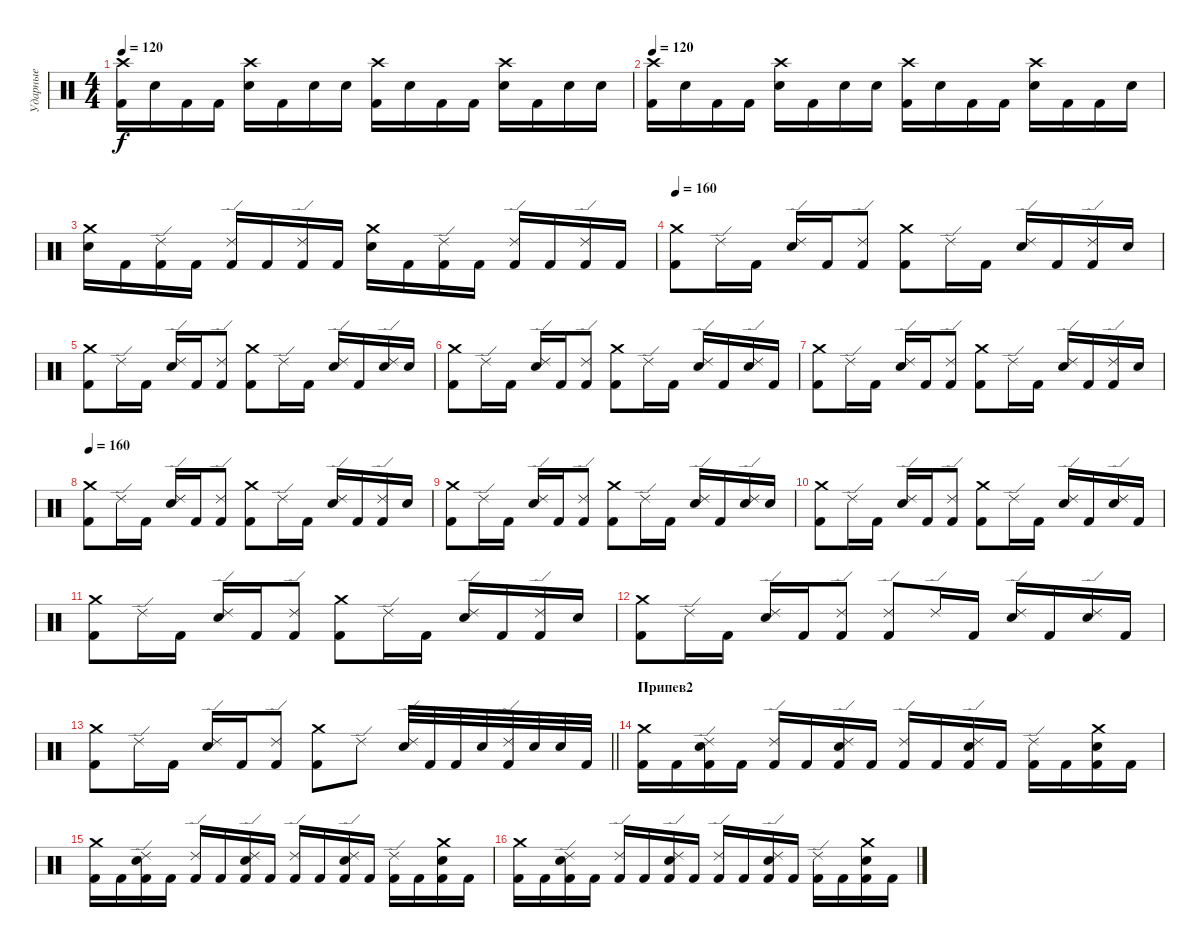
\track ("Ударные" "Ударные") {instrument percussion}
\staff {score}
\articulation defaults
\ts (4 4)
\tempo 120
\clef neutral
\ks c
("Crash high (hit)" "Kick (hit) 2").16{dy f} "Electric Snare (hit)".16 "Kick (hit) 2".16 "Kick (hit) 2".16 ("Crash high (hit)" "Electric Snare (hit)").16 "Kick (hit) 2".16 "Electric Snare (hit)".16 "Electric Snare (hit)".16 ("Crash high (hit)" "Kick (hit) 2").16 "Electric Snare (hit)".16 "Kick (hit) 2".16 "Kick (hit) 2".16 ("Crash high (hit)" "Electric Snare (hit)").16 "Kick (hit) 2".16 "Electric Snare (hit)".16 "Electric Snare (hit)".16 |
\tempo 120
("Crash high (hit)" "Kick (hit) 2").16 "Electric Snare (hit)".16 "Kick (hit) 2".16 "Kick (hit) 2".16 ("Crash high (hit)" "Electric Snare (hit)").16 "Kick (hit) 2".16 "Electric Snare (hit)".16 "Electric Snare (hit)".16 ("Crash high (hit)" "Kick (hit) 2").16 "Electric Snare (hit)".16 "Kick (hit) 2".16 "Kick (hit) 2".16 ("Crash high (hit)" "Electric Snare (hit)").16 "Kick (hit) 2".16 "Kick (hit) 2".16 "Electric Snare (hit)".16 |
("Crash medium (hit)" "Electric Snare (hit)").16 "Kick (hit) 2".16 ("Ride (edge) 2" "Kick (hit) 2").16 "Kick (hit) 2".16 ("Ride (edge) 2" "Kick (hit) 2").16 "Kick (hit) 2".16 ("Ride (edge) 2" "Kick (hit) 2").16 "Kick (hit) 2".16 ("Crash medium (hit)" "Electric Snare (hit)").16 "Kick (hit) 2".16 ("Ride (edge) 2" "Kick (hit) 2").16 "Kick (hit) 2".16 ("Ride (edge) 2" "Kick (hit) 2").16 "Kick (hit) 2".16 ("Ride (edge) 2" "Kick (hit) 2").16 "Kick (hit) 2".16 |
\tempo 160
("Crash medium (hit)" "Kick (hit) 2").8 "Ride (edge) 2".16 "Kick (hit) 2".16 ("Ride (edge) 2" "Electric Snare (hit)").16 "Kick (hit) 2".16 ("Ride (edge) 2" "Kick (hit) 2").8 ("Crash medium (hit)" "Kick (hit) 2").8 "Ride (edge) 2".16 "Kick (hit) 2".16 ("Ride (edge) 2" "Electric Snare (hit)").16 "Kick (hit) 2".16 ("Ride (edge) 2" "Kick (hit) 2").16 "Electric Snare (hit)".16 |
("Crash medium (hit)" "Kick (hit) 2").8 "Ride (edge) 2".16 "Kick (hit) 2".16 ("Ride (edge) 2" "Electric Snare (hit)").16 "Kick (hit) 2".16 ("Ride (edge) 2" "Kick (hit) 2").8 ("Crash medium (hit)" "Kick (hit) 2").8 "Ride (edge) 2".16 "Kick (hit) 2".16 ("Ride (edge) 2" "Electric Snare (hit)").16 "Kick (hit) 2".16 ("Ride (edge) 2" "Electric Snare (hit)").16 "Electric Snare (hit)".16 |
("Crash medium (hit)" "Kick (hit) 2").8 "Ride (edge) 2".16 "Kick (hit) 2".16 ("Ride (edge) 2" "Electric Snare (hit)").16 "Kick (hit) 2".16 ("Ride (edge) 2" "Kick (hit) 2").8 ("Crash medium (hit)" "Kick (hit) 2").8 "Ride (edge) 2".16 "Kick (hit) 2".16 ("Ride (edge) 2" "Electric Snare (hit)").16 "Kick (hit) 2".16 ("Ride (edge) 2" "Electric Snare (hit)").16 "Kick (hit) 2".16 |
("Crash medium (hit)" "Kick (hit) 2").8 "Ride (edge) 2".16 "Kick (hit) 2".16 ("Ride (edge) 2" "Electric Snare (hit)").16 "Kick (hit) 2".16 ("Ride (edge) 2" "Kick (hit) 2").8 ("Crash medium (hit)" "Kick (hit) 2").8 "Ride (edge) 2".16 "Kick (hit) 2".16 ("Ride (edge) 2" "Electric Snare (hit)").16 "Kick (hit) 2".16 ("Ride (edge) 2" "Kick (hit) 2").16 "Electric Snare (hit)".16 |
\tempo 160
("Crash medium (hit)" "Kick (hit) 2").8 "Ride (edge) 2".16 "Kick (hit) 2".16 ("Ride (edge) 2" "Electric Snare (hit)").16 "Kick (hit) 2".16 ("Ride (edge) 2" "Kick (hit) 2").8 ("Crash medium (hit)" "Kick (hit) 2").8 "Ride (edge) 2".16 "Kick (hit) 2".16 ("Ride (edge) 2" "Electric Snare (hit)").16 "Kick (hit) 2".16 ("Ride (edge) 2" "Kick (hit) 2").16 "Electric Snare (hit)".16 |
("Crash medium (hit)" "Kick (hit) 2").8 "Ride (edge) 2".16 "Kick (hit) 2".16 ("Ride (edge) 2" "Electric Snare (hit)").16 "Kick (hit) 2".16 ("Ride (edge) 2" "Kick (hit) 2").8 ("Crash medium (hit)" "Kick (hit) 2").8 "Ride (edge) 2".16 "Kick (hit) 2".16 ("Ride (edge) 2" "Electric Snare (hit)").16 "Kick (hit) 2".16 ("Ride (edge) 2" "Electric Snare (hit)").16 "Electric Snare (hit)".16 |
("Crash medium (hit)" "Kick (hit) 2").8 "Ride (edge) 2".16 "Kick (hit) 2".16 ("Ride (edge) 2" "Electric Snare (hit)").16 "Kick (hit) 2".16 ("Ride (edge) 2" "Kick (hit) 2").8 ("Crash medium (hit)" "Kick (hit) 2").8 "Ride (edge) 2".16 "Kick (hit) 2".16 ("Ride (edge) 2" "Electric Snare (hit)").16 "Kick (hit) 2".16 ("Ride (edge) 2" "Electric Snare (hit)").16 "Kick (hit) 2".16 |
("Crash medium (hit)" "Kick (hit) 2").8 "Ride (edge) 2".16 "Kick (hit) 2".16 ("Ride (edge) 2" "Electric Snare (hit)").16 "Kick (hit) 2".16 ("Ride (edge) 2" "Kick (hit) 2").8 ("Crash medium (hit)" "Kick (hit) 2").8 "Ride (edge) 2".16 "Kick (hit) 2".16 ("Ride (edge) 2" "Electric Snare (hit)").16 "Kick (hit) 2".16 ("Ride (edge) 2" "Kick (hit) 2").16 "Electric Snare (hit)".16 |
("Crash medium (hit)" "Kick (hit) 2").8 "Ride (edge) 2".16 "Kick (hit) 2".16 ("Ride (edge) 2" "Electric Snare (hit)").16 "Kick (hit) 2".16 ("Ride (edge) 2" "Kick (hit) 2").8 ("Ride (edge) 2" "Kick (hit) 2").8 "Ride (edge) 2".16 "Kick (hit) 2".16 ("Ride (edge) 2" "Electric Snare (hit)").16 "Kick (hit) 2".16 ("Ride (edge) 2" "Electric Snare (hit)").16 "Kick (hit) 2".16 |
\barLineRight lightlight
("Crash medium (hit)" "Kick (hit) 2").8 "Ride (edge) 2".16 "Kick (hit) 2".16 ("Ride (edge) 2" "Electric Snare (hit)").16 "Kick (hit) 2".16 ("Ride (edge) 2" "Kick (hit) 2").8 ("Crash medium (hit)" "Kick (hit) 2").8 "Ride (edge) 2".8 ("Electric Snare (hit)" "Ride (edge) 2").32 "Kick (hit) 2".32 "Kick (hit) 2".32 "Electric Snare (hit)".32 ("Kick (hit) 2" "Ride (edge) 2").32 "Electric Snare (hit)".32 "Electric Snare (hit)".32 "Kick (hit) 2".32 |
\section ("" "Припев2")
("Crash medium (hit)" "Kick (hit) 2").16 "Kick (hit) 2".16 ("Ride (edge) 2" "Kick (hit) 2" "Electric Snare (hit)").16 "Kick (hit) 2".16 ("Ride (edge) 2" "Kick (hit) 2").16 "Kick (hit) 2".16 ("Ride (edge) 2" "Kick (hit) 2" "Electric Snare (hit)").16 "Kick (hit) 2".16 ("Ride (edge) 2" "Kick (hit) 2").16 "Kick (hit) 2".16 ("Ride (edge) 2" "Kick (hit) 2" "Electric Snare (hit)").16 "Kick (hit) 2".16 ("Ride (edge) 2" "Kick (hit) 2").16 "Kick (hit) 2".16 ("Crash medium (hit)" "Kick (hit) 2" "Electric Snare (hit)").16 "Kick (hit) 2".16 |
("Crash medium (hit)" "Kick (hit) 2").16 "Kick (hit) 2".16 ("Ride (edge) 2" "Kick (hit) 2" "Electric Snare (hit)").16 "Kick (hit) 2".16 ("Ride (edge) 2" "Kick (hit) 2").16 "Kick (hit) 2".16 ("Ride (edge) 2" "Kick (hit) 2" "Electric Snare (hit)").16 "Kick (hit) 2".16 ("Ride (edge) 2" "Kick (hit) 2").16 "Kick (hit) 2".16 ("Ride (edge) 2" "Kick (hit) 2" "Electric Snare (hit)").16 "Kick (hit) 2".16 ("Ride (edge) 2" "Kick (hit) 2").16 "Kick (hit) 2".16 ("Crash medium (hit)" "Kick (hit) 2" "Electric Snare (hit)").16 "Kick (hit) 2".16 |
("Crash medium (hit)" "Kick (hit) 2").16 "Kick (hit) 2".16 ("Ride (edge) 2" "Kick (hit) 2" "Electric Snare (hit)").16 "Kick (hit) 2".16 ("Ride (edge) 2" "Kick (hit) 2").16 "Kick (hit) 2".16 ("Ride (edge) 2" "Kick (hit) 2" "Electric Snare (hit)").16 "Kick (hit) 2".16 ("Ride (edge) 2" "Kick (hit) 2").16 "Kick (hit) 2".16 ("Ride (edge) 2" "Kick (hit) 2" "Electric Snare (hit)").16 "Kick (hit) 2".16 ("Ride (edge) 2" "Kick (hit) 2").16 "Kick (hit) 2".16 ("Crash medium (hit)" "Kick (hit) 2" "Electric Snare (hit)").16 "Kick (hit) 2".16
